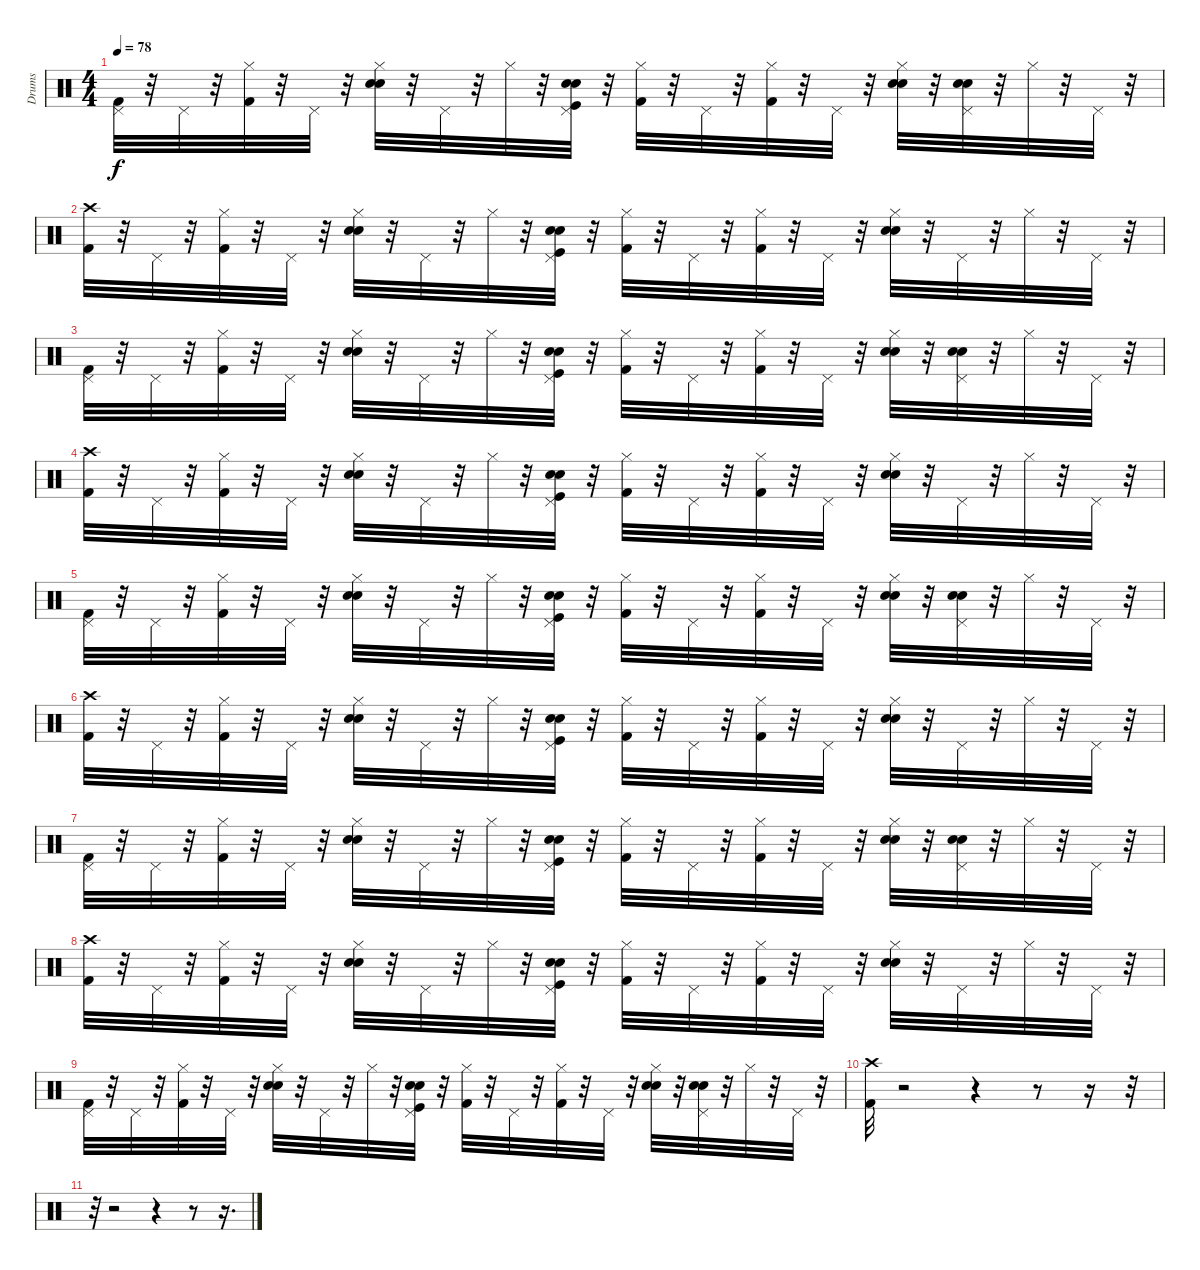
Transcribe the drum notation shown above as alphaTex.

\track ("Drums" "Drums") {instrument percussion}
\staff {score}
\articulation defaults
\ts (4 4)
\tempo 78
\clef neutral
\ks c
("Pedal Hi-Hat (hit)" "Kick (hit) 2").32{dy f} r.32 "Pedal Hi-Hat (hit)".32 r.32 ("Hi-Hat (closed)" "Kick (hit) 2").32 r.32 "Pedal Hi-Hat (hit)".32 r.32 ("Hi-Hat (closed)" "Hand Clap (hit)" "Snare (hit) 2").32 r.32 "Pedal Hi-Hat (hit)".32 r.32 "Hi-Hat (closed)".32 r.32 ("Hand Clap (hit)" "Snare (hit) 2" "Pedal Hi-Hat (hit)" "Kick (hit)").32 r.32 ("Hi-Hat (closed)" "Kick (hit) 2").32 r.32 "Pedal Hi-Hat (hit)".32 r.32 ("Hi-Hat (closed)" "Kick (hit) 2").32 r.32 "Pedal Hi-Hat (hit)".32 r.32 ("Hi-Hat (closed)" "Hand Clap (hit)" "Snare (hit) 2").32 r.32 ("Hand Clap (hit)" "Snare (hit) 2" "Pedal Hi-Hat (hit)").32 r.32 "Hi-Hat (closed)".32 r.32 "Pedal Hi-Hat (hit)".32 r.32 |
("Crash high (hit)" "Kick (hit) 2").32 r.32 "Pedal Hi-Hat (hit)".32 r.32 ("Hi-Hat (closed)" "Kick (hit) 2").32 r.32 "Pedal Hi-Hat (hit)".32 r.32 ("Hi-Hat (closed)" "Hand Clap (hit)" "Snare (hit) 2").32 r.32 "Pedal Hi-Hat (hit)".32 r.32 "Hi-Hat (closed)".32 r.32 ("Hand Clap (hit)" "Snare (hit) 2" "Pedal Hi-Hat (hit)" "Kick (hit)").32 r.32 ("Hi-Hat (closed)" "Kick (hit) 2").32 r.32 "Pedal Hi-Hat (hit)".32 r.32 ("Hi-Hat (closed)" "Kick (hit) 2").32 r.32 "Pedal Hi-Hat (hit)".32 r.32 ("Hi-Hat (closed)" "Hand Clap (hit)" "Snare (hit) 2").32 r.32 "Pedal Hi-Hat (hit)".32 r.32 "Hi-Hat (closed)".32 r.32 "Pedal Hi-Hat (hit)".32 r.32 |
("Pedal Hi-Hat (hit)" "Kick (hit) 2").32 r.32 "Pedal Hi-Hat (hit)".32 r.32 ("Hi-Hat (closed)" "Kick (hit) 2").32 r.32 "Pedal Hi-Hat (hit)".32 r.32 ("Hi-Hat (closed)" "Hand Clap (hit)" "Snare (hit) 2").32 r.32 "Pedal Hi-Hat (hit)".32 r.32 "Hi-Hat (closed)".32 r.32 ("Hand Clap (hit)" "Snare (hit) 2" "Pedal Hi-Hat (hit)" "Kick (hit)").32 r.32 ("Hi-Hat (closed)" "Kick (hit) 2").32 r.32 "Pedal Hi-Hat (hit)".32 r.32 ("Hi-Hat (closed)" "Kick (hit) 2").32 r.32 "Pedal Hi-Hat (hit)".32 r.32 ("Hi-Hat (closed)" "Hand Clap (hit)" "Snare (hit) 2").32 r.32 ("Hand Clap (hit)" "Snare (hit) 2" "Pedal Hi-Hat (hit)").32 r.32 "Hi-Hat (closed)".32 r.32 "Pedal Hi-Hat (hit)".32 r.32 |
("Crash high (hit)" "Kick (hit) 2").32 r.32 "Pedal Hi-Hat (hit)".32 r.32 ("Hi-Hat (closed)" "Kick (hit) 2").32 r.32 "Pedal Hi-Hat (hit)".32 r.32 ("Hi-Hat (closed)" "Hand Clap (hit)" "Snare (hit) 2").32 r.32 "Pedal Hi-Hat (hit)".32 r.32 "Hi-Hat (closed)".32 r.32 ("Hand Clap (hit)" "Snare (hit) 2" "Pedal Hi-Hat (hit)" "Kick (hit)").32 r.32 ("Hi-Hat (closed)" "Kick (hit) 2").32 r.32 "Pedal Hi-Hat (hit)".32 r.32 ("Hi-Hat (closed)" "Kick (hit) 2").32 r.32 "Pedal Hi-Hat (hit)".32 r.32 ("Hi-Hat (closed)" "Hand Clap (hit)" "Snare (hit) 2").32 r.32 "Pedal Hi-Hat (hit)".32 r.32 "Hi-Hat (closed)".32 r.32 "Pedal Hi-Hat (hit)".32 r.32 |
("Pedal Hi-Hat (hit)" "Kick (hit) 2").32 r.32 "Pedal Hi-Hat (hit)".32 r.32 ("Hi-Hat (closed)" "Kick (hit) 2").32 r.32 "Pedal Hi-Hat (hit)".32 r.32 ("Hi-Hat (closed)" "Hand Clap (hit)" "Snare (hit) 2").32 r.32 "Pedal Hi-Hat (hit)".32 r.32 "Hi-Hat (closed)".32 r.32 ("Hand Clap (hit)" "Snare (hit) 2" "Pedal Hi-Hat (hit)" "Kick (hit)").32 r.32 ("Hi-Hat (closed)" "Kick (hit) 2").32 r.32 "Pedal Hi-Hat (hit)".32 r.32 ("Hi-Hat (closed)" "Kick (hit) 2").32 r.32 "Pedal Hi-Hat (hit)".32 r.32 ("Hi-Hat (closed)" "Hand Clap (hit)" "Snare (hit) 2").32 r.32 ("Hand Clap (hit)" "Snare (hit) 2" "Pedal Hi-Hat (hit)").32 r.32 "Hi-Hat (closed)".32 r.32 "Pedal Hi-Hat (hit)".32 r.32 |
("Crash high (hit)" "Kick (hit) 2").32 r.32 "Pedal Hi-Hat (hit)".32 r.32 ("Hi-Hat (closed)" "Kick (hit) 2").32 r.32 "Pedal Hi-Hat (hit)".32 r.32 ("Hi-Hat (closed)" "Hand Clap (hit)" "Snare (hit) 2").32 r.32 "Pedal Hi-Hat (hit)".32 r.32 "Hi-Hat (closed)".32 r.32 ("Hand Clap (hit)" "Snare (hit) 2" "Pedal Hi-Hat (hit)" "Kick (hit)").32 r.32 ("Hi-Hat (closed)" "Kick (hit) 2").32 r.32 "Pedal Hi-Hat (hit)".32 r.32 ("Hi-Hat (closed)" "Kick (hit) 2").32 r.32 "Pedal Hi-Hat (hit)".32 r.32 ("Hi-Hat (closed)" "Hand Clap (hit)" "Snare (hit) 2").32 r.32 "Pedal Hi-Hat (hit)".32 r.32 "Hi-Hat (closed)".32 r.32 "Pedal Hi-Hat (hit)".32 r.32 |
("Pedal Hi-Hat (hit)" "Kick (hit) 2").32 r.32 "Pedal Hi-Hat (hit)".32 r.32 ("Hi-Hat (closed)" "Kick (hit) 2").32 r.32 "Pedal Hi-Hat (hit)".32 r.32 ("Hi-Hat (closed)" "Hand Clap (hit)" "Snare (hit) 2").32 r.32 "Pedal Hi-Hat (hit)".32 r.32 "Hi-Hat (closed)".32 r.32 ("Hand Clap (hit)" "Snare (hit) 2" "Pedal Hi-Hat (hit)" "Kick (hit)").32 r.32 ("Hi-Hat (closed)" "Kick (hit) 2").32 r.32 "Pedal Hi-Hat (hit)".32 r.32 ("Hi-Hat (closed)" "Kick (hit) 2").32 r.32 "Pedal Hi-Hat (hit)".32 r.32 ("Hi-Hat (closed)" "Hand Clap (hit)" "Snare (hit) 2").32 r.32 ("Hand Clap (hit)" "Snare (hit) 2" "Pedal Hi-Hat (hit)").32 r.32 "Hi-Hat (closed)".32 r.32 "Pedal Hi-Hat (hit)".32 r.32 |
("Crash high (hit)" "Kick (hit) 2").32 r.32 "Pedal Hi-Hat (hit)".32 r.32 ("Hi-Hat (closed)" "Kick (hit) 2").32 r.32 "Pedal Hi-Hat (hit)".32 r.32 ("Hi-Hat (closed)" "Hand Clap (hit)" "Snare (hit) 2").32 r.32 "Pedal Hi-Hat (hit)".32 r.32 "Hi-Hat (closed)".32 r.32 ("Hand Clap (hit)" "Snare (hit) 2" "Pedal Hi-Hat (hit)" "Kick (hit)").32 r.32 ("Hi-Hat (closed)" "Kick (hit) 2").32 r.32 "Pedal Hi-Hat (hit)".32 r.32 ("Hi-Hat (closed)" "Kick (hit) 2").32 r.32 "Pedal Hi-Hat (hit)".32 r.32 ("Hi-Hat (closed)" "Hand Clap (hit)" "Snare (hit) 2").32 r.32 "Pedal Hi-Hat (hit)".32 r.32 "Hi-Hat (closed)".32 r.32 "Pedal Hi-Hat (hit)".32 r.32 |
("Pedal Hi-Hat (hit)" "Kick (hit) 2").32 r.32 "Pedal Hi-Hat (hit)".32 r.32 ("Hi-Hat (closed)" "Kick (hit) 2").32 r.32 "Pedal Hi-Hat (hit)".32 r.32 ("Hi-Hat (closed)" "Hand Clap (hit)" "Snare (hit) 2").32 r.32 "Pedal Hi-Hat (hit)".32 r.32 "Hi-Hat (closed)".32 r.32 ("Hand Clap (hit)" "Snare (hit) 2" "Pedal Hi-Hat (hit)" "Kick (hit)").32 r.32 ("Hi-Hat (closed)" "Kick (hit) 2").32 r.32 "Pedal Hi-Hat (hit)".32 r.32 ("Hi-Hat (closed)" "Kick (hit) 2").32 r.32 "Pedal Hi-Hat (hit)".32 r.32 ("Hi-Hat (closed)" "Hand Clap (hit)" "Snare (hit) 2").32 r.32 ("Hand Clap (hit)" "Snare (hit) 2" "Pedal Hi-Hat (hit)").32 r.32 "Hi-Hat (closed)".32 r.32 "Pedal Hi-Hat (hit)".32 r.32 |
("Crash high (hit)" "Kick (hit) 2").32 r.2 r.4 r.8 r.16 r.32 |
r.32 r.2 r.4 r.8 r.16{d}
